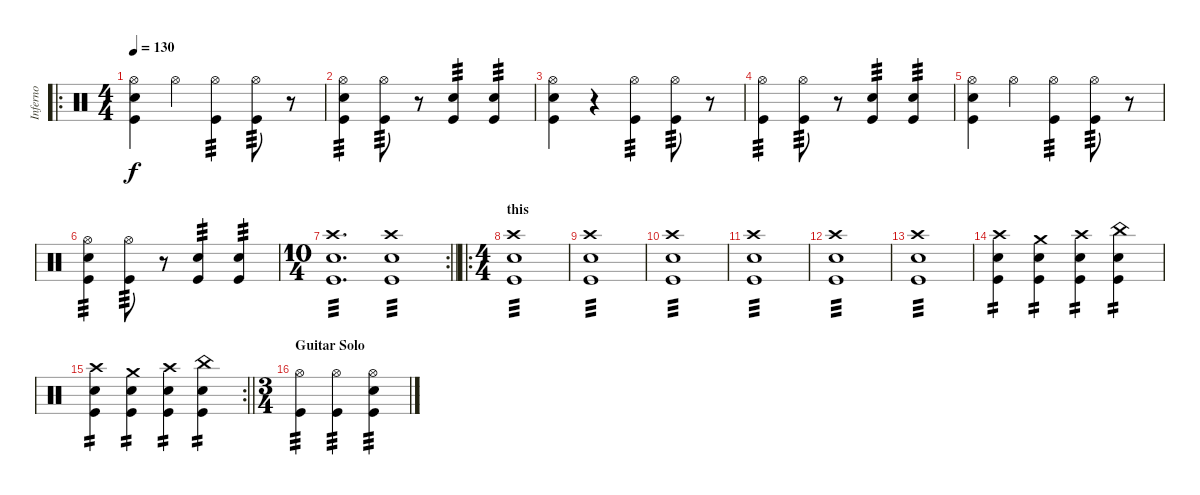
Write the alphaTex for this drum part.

\track ("Inferno" "Inferno") {instrument percussion}
\staff {score}
\articulation defaults
\ro
\ts (4 4)
\tempo 130
\clef neutral
\ks c
("Hi-Hat (open)" "Snare (hit) 2" "Kick (hit)").4{dy f} "Hi-Hat (open)".4 ("Hi-Hat (open)" "Kick (hit)").4{tp 3} ("Hi-Hat (open)" "Kick (hit)").8{tp 3} r.8 |
("Hi-Hat (open)" "Snare (hit) 2" "Kick (hit)").4{tp 3} ("Hi-Hat (open)" "Kick (hit)").8{tp 3} r.8 ("Snare (hit) 2" "Kick (hit)").4{tp 3} ("Snare (hit) 2" "Kick (hit)").4{tp 3} |
("Hi-Hat (open)" "Snare (hit) 2" "Kick (hit)").4 r.4 ("Hi-Hat (open)" "Kick (hit)").4{tp 3} ("Hi-Hat (open)" "Kick (hit)").8{tp 3} r.8 |
("Hi-Hat (open)" "Kick (hit)").4{tp 3} ("Hi-Hat (open)" "Kick (hit)").8{tp 3} r.8 ("Snare (hit) 2" "Kick (hit)").4{tp 3} ("Snare (hit) 2" "Kick (hit)").4{tp 3} |
("Hi-Hat (open)" "Snare (hit) 2" "Kick (hit)").4 "Hi-Hat (open)".4 ("Hi-Hat (open)" "Kick (hit)").4{tp 3} ("Hi-Hat (open)" "Kick (hit)").8{tp 3} r.8 |
("Hi-Hat (open)" "Snare (hit) 2" "Kick (hit)").4{tp 3} ("Hi-Hat (open)" "Kick (hit)").8{tp 3} r.8 ("Snare (hit) 2" "Kick (hit)").4{tp 3} ("Snare (hit) 2" "Kick (hit)").4{tp 3} |
\rc 2
\ts (10 4)
\barLineRight lightlight
("Crash high (hit)" "Snare (hit) 2" "Kick (hit)").1{d tp 3} ("Crash high (hit)" "Snare (hit) 2" "Kick (hit)").1{tp 3} |
\ro
\ts (4 4)
\section ("" "this")
("Crash high (hit)" "Snare (hit) 2" "Kick (hit)").1{tp 3} |
("Crash high (hit)" "Snare (hit) 2" "Kick (hit)").1{tp 3} |
("Crash high (hit)" "Snare (hit) 2" "Kick (hit)").1{tp 3} |
("Crash high (hit)" "Snare (hit) 2" "Kick (hit)").1{tp 3} |
("Crash high (hit)" "Snare (hit) 2" "Kick (hit)").1{tp 3} |
("Crash high (hit)" "Snare (hit) 2" "Kick (hit)").1{tp 3} |
("Crash high (hit)" "Snare (hit) 2" "Kick (hit)").4{tp 2} ("Crash medium (hit)" "Snare (hit) 2" "Kick (hit)").4{tp 2} ("Crash high (hit)" "Snare (hit) 2" "Kick (hit)").4{tp 2} ("China (hit)" "Snare (hit) 2" "Kick (hit)").4{tp 2} |
\rc 2
\barLineRight lightlight
("Crash high (hit)" "Snare (hit) 2" "Kick (hit)").4{tp 2} ("Crash medium (hit)" "Snare (hit) 2" "Kick (hit)").4{tp 2} ("Crash high (hit)" "Snare (hit) 2" "Kick (hit)").4{tp 2} ("China (hit)" "Snare (hit) 2" "Kick (hit)").4{tp 2} |
\ts (3 4)
\section ("" "Guitar Solo")
("Hi-Hat (open)" "Kick (hit)").4{tp 3} ("Hi-Hat (open)" "Kick (hit)").4{tp 3} ("Hi-Hat (open)" "Snare (hit) 2" "Kick (hit)").4{tp 3}
